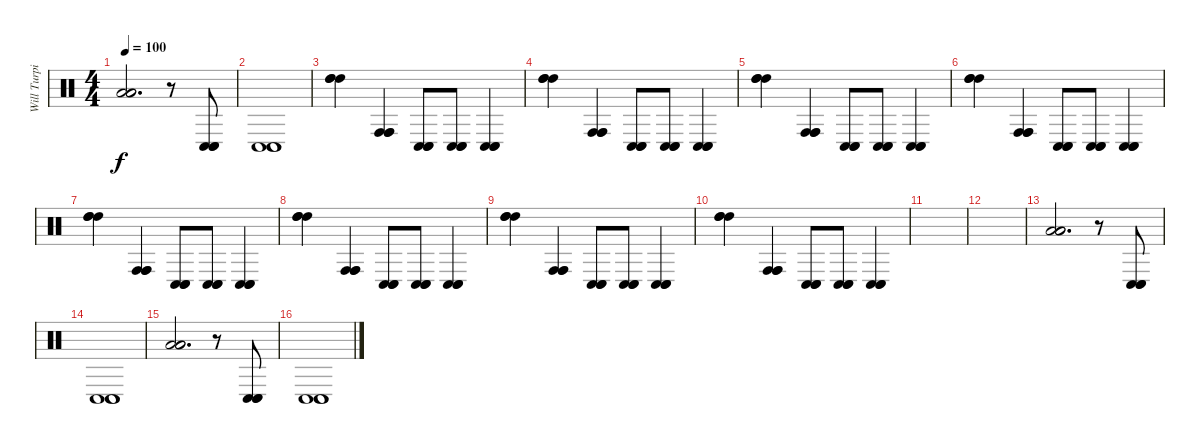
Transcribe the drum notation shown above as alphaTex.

\track ("Will Turpin" "Will Turpi") {instrument percussion}
\staff {score}
\articulation defaults
\ts (4 4)
\tempo 100
\clef neutral
\ks c
("Low Tom (hit)" "Low Tom (hit)" "Low Tom (hit)").2{d dy f} r.8 ("Conga low (hit)" "Conga low (hit)" "Conga low (hit)").8 |
("Conga low (hit)" "Conga low (hit)" "Conga low (hit)").1 |
("High Tom (hit)" "High Tom (hit)" "High Tom (hit)").4 ("Conga high (hit)" "Conga high (hit)" "Conga high (hit)").4 ("Conga low (hit)" "Conga low (hit)" "Conga low (hit)").8 ("Conga low (hit)" "Conga low (hit)" "Conga low (hit)").8 ("Conga low (hit)" "Conga low (hit)" "Conga low (hit)").4 |
("High Tom (hit)" "High Tom (hit)" "High Tom (hit)").4 ("Conga high (hit)" "Conga high (hit)" "Conga high (hit)").4 ("Conga low (hit)" "Conga low (hit)" "Conga low (hit)").8 ("Conga low (hit)" "Conga low (hit)" "Conga low (hit)").8 ("Conga low (hit)" "Conga low (hit)" "Conga low (hit)").4 |
("High Tom (hit)" "High Tom (hit)" "High Tom (hit)").4 ("Conga high (hit)" "Conga high (hit)" "Conga high (hit)").4 ("Conga low (hit)" "Conga low (hit)" "Conga low (hit)").8 ("Conga low (hit)" "Conga low (hit)" "Conga low (hit)").8 ("Conga low (hit)" "Conga low (hit)" "Conga low (hit)").4 |
("High Tom (hit)" "High Tom (hit)" "High Tom (hit)").4 ("Conga high (hit)" "Conga high (hit)" "Conga high (hit)").4 ("Conga low (hit)" "Conga low (hit)" "Conga low (hit)").8 ("Conga low (hit)" "Conga low (hit)" "Conga low (hit)").8 ("Conga low (hit)" "Conga low (hit)" "Conga low (hit)").4 |
("High Tom (hit)" "High Tom (hit)" "High Tom (hit)").4 ("Conga high (hit)" "Conga high (hit)" "Conga high (hit)").4 ("Conga low (hit)" "Conga low (hit)" "Conga low (hit)").8 ("Conga low (hit)" "Conga low (hit)" "Conga low (hit)").8 ("Conga low (hit)" "Conga low (hit)" "Conga low (hit)").4 |
("High Tom (hit)" "High Tom (hit)" "High Tom (hit)").4 ("Conga high (hit)" "Conga high (hit)" "Conga high (hit)").4 ("Conga low (hit)" "Conga low (hit)" "Conga low (hit)").8 ("Conga low (hit)" "Conga low (hit)" "Conga low (hit)").8 ("Conga low (hit)" "Conga low (hit)" "Conga low (hit)").4 |
("High Tom (hit)" "High Tom (hit)" "High Tom (hit)").4 ("Conga high (hit)" "Conga high (hit)" "Conga high (hit)").4 ("Conga low (hit)" "Conga low (hit)" "Conga low (hit)").8 ("Conga low (hit)" "Conga low (hit)" "Conga low (hit)").8 ("Conga low (hit)" "Conga low (hit)" "Conga low (hit)").4 |
("High Tom (hit)" "High Tom (hit)" "High Tom (hit)").4 ("Conga high (hit)" "Conga high (hit)" "Conga high (hit)").4 ("Conga low (hit)" "Conga low (hit)" "Conga low (hit)").8 ("Conga low (hit)" "Conga low (hit)" "Conga low (hit)").8 ("Conga low (hit)" "Conga low (hit)" "Conga low (hit)").4 |
|
|
("Low Tom (hit)" "Low Tom (hit)" "Low Tom (hit)").2{d} r.8 ("Conga low (hit)" "Conga low (hit)" "Conga low (hit)").8 |
("Conga low (hit)" "Conga low (hit)" "Conga low (hit)").1 |
("Low Tom (hit)" "Low Tom (hit)" "Low Tom (hit)").2{d} r.8 ("Conga low (hit)" "Conga low (hit)" "Conga low (hit)").8 |
("Conga low (hit)" "Conga low (hit)" "Conga low (hit)").1
